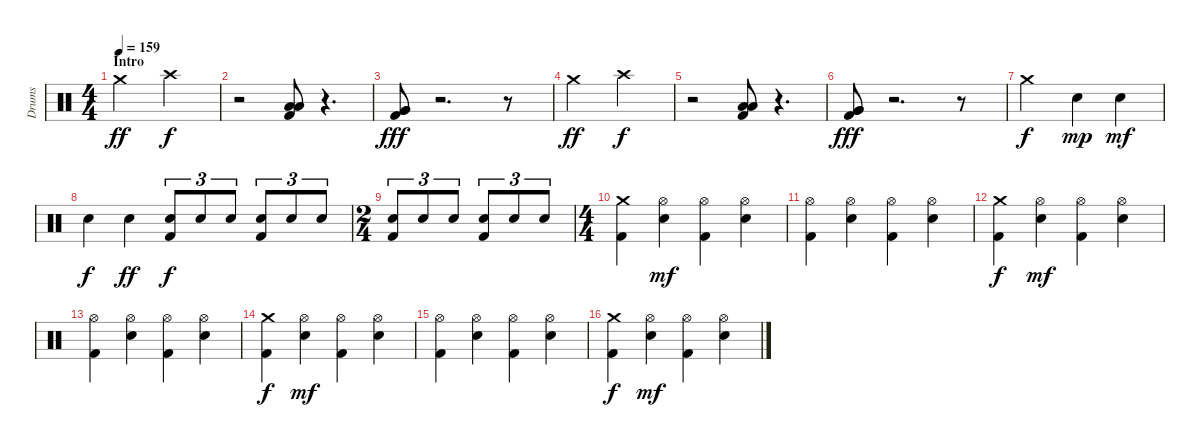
\track ("Drums" "Drums") {instrument percussion}
\staff {score}
\articulation defaults
\ts (4 4)
\section ("" "Intro")
\tempo 159
\clef neutral
\ks c "Crash medium (hit)".2{dy ff} "Crash high (hit)".2{dy f}
|
r.2 ("Low Tom (hit)" "Low Tom (hit)" "Kick (hit) 2").8{bu 480} r.4{d} |
("Very Low Tom (hit)" "Very Low Tom (hit)" "Kick (hit) 2").8{bu 480 dy fff} r.2{d} r.8 |
"Crash medium (hit)".2{dy ff} "Crash high (hit)".2{dy f} |
r.2 ("Low Tom (hit)" "Low Tom (hit)" "Kick (hit) 2").8{bu 480} r.4{d} |
("Very Low Tom (hit)" "Very Low Tom (hit)" "Kick (hit) 2").8{bu 480 dy fff} r.2{d} r.8 |
"Crash medium (hit)".2{dy f} "Snare (hit) 2".4{dy mp} "Snare (hit) 2".4{dy mf} |
"Snare (hit) 2".4{dy f} "Snare (hit) 2".4{dy ff} ("Snare (hit) 2" "Kick (hit) 2").8{tu (3 2) dy f} "Snare (hit) 2".8{tu (3 2)} "Snare (hit) 2".8{tu (3 2)} ("Snare (hit) 2" "Kick (hit) 2").8{tu (3 2)} "Snare (hit) 2".8{tu (3 2)} "Snare (hit) 2".8{tu (3 2)} |
\ts (2 4)
("Snare (hit) 2" "Kick (hit) 2").8{tu (3 2)} "Snare (hit) 2".8{tu (3 2)} "Snare (hit) 2".8{tu (3 2)} ("Snare (hit) 2" "Kick (hit) 2").8{tu (3 2)} "Snare (hit) 2".8{tu (3 2)} "Snare (hit) 2".8{tu (3 2)} |
\ts (4 4)
("Crash medium (hit)" "Kick (hit) 2").4 ("Hi-Hat (open)" "Snare (hit) 2").4{dy mf} ("Hi-Hat (open)" "Kick (hit) 2").4 ("Hi-Hat (open)" "Snare (hit) 2").4 |
("Hi-Hat (open)" "Kick (hit) 2").4 ("Hi-Hat (open)" "Snare (hit) 2").4 ("Hi-Hat (open)" "Kick (hit) 2").4 ("Hi-Hat (open)" "Snare (hit) 2").4 |
("Crash medium (hit)" "Kick (hit) 2").4{dy f} ("Hi-Hat (open)" "Snare (hit) 2").4{dy mf} ("Hi-Hat (open)" "Kick (hit) 2").4 ("Hi-Hat (open)" "Snare (hit) 2").4 |
("Hi-Hat (open)" "Kick (hit) 2").4 ("Hi-Hat (open)" "Snare (hit) 2").4 ("Hi-Hat (open)" "Kick (hit) 2").4 ("Hi-Hat (open)" "Snare (hit) 2").4 |
("Crash medium (hit)" "Kick (hit) 2").4{dy f} ("Hi-Hat (open)" "Snare (hit) 2").4{dy mf} ("Hi-Hat (open)" "Kick (hit) 2").4 ("Hi-Hat (open)" "Snare (hit) 2").4 |
("Hi-Hat (open)" "Kick (hit) 2").4 ("Hi-Hat (open)" "Snare (hit) 2").4 ("Hi-Hat (open)" "Kick (hit) 2").4 ("Hi-Hat (open)" "Snare (hit) 2").4 |
("Crash medium (hit)" "Kick (hit) 2").4{dy f} ("Hi-Hat (open)" "Snare (hit) 2").4{dy mf} ("Hi-Hat (open)" "Kick (hit) 2").4 ("Hi-Hat (open)" "Snare (hit) 2").4
